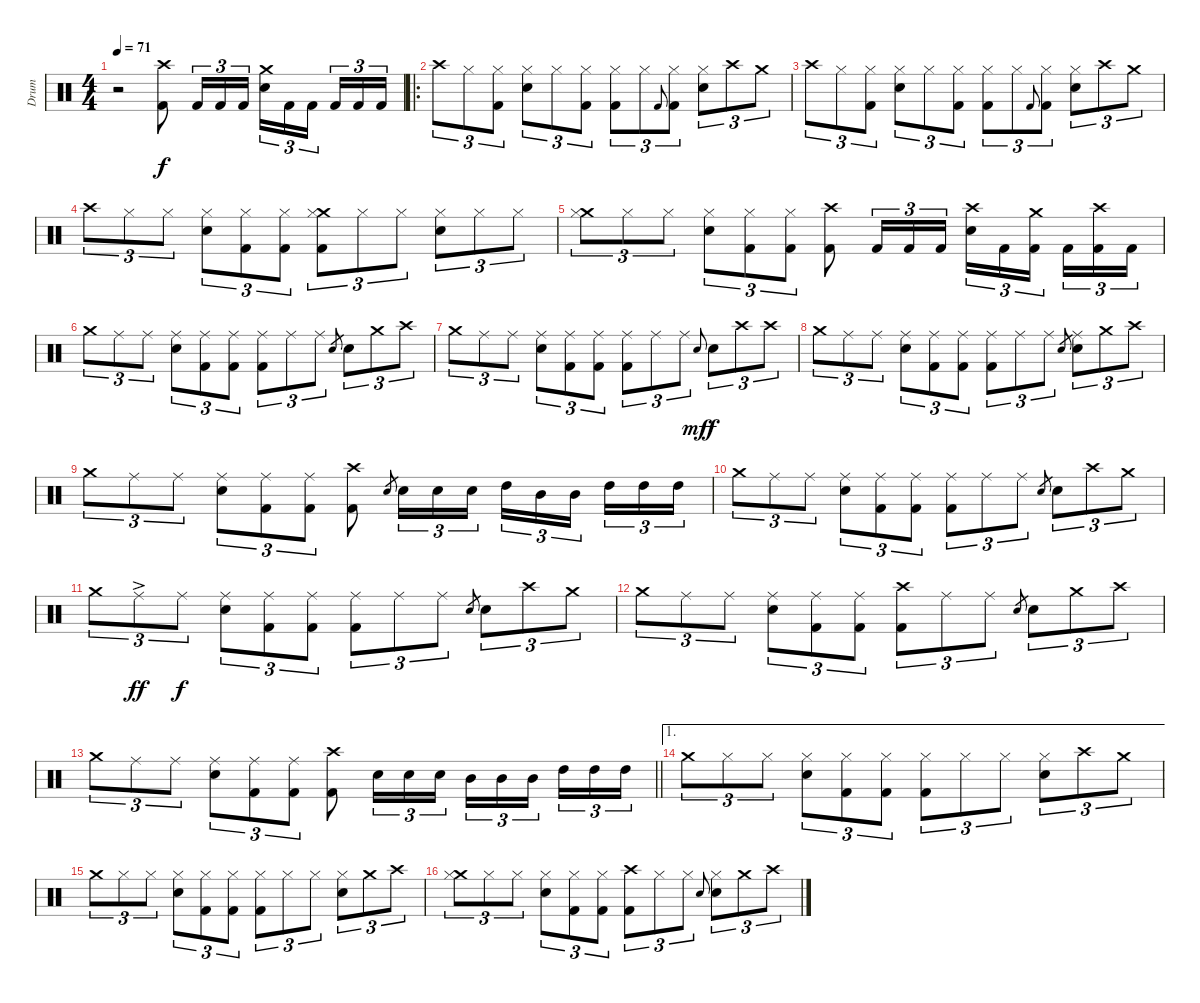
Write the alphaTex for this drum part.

\track ("Drum" "Drum") {instrument percussion}
\staff {score}
\articulation defaults
\ts (4 4)
\tempo 71
\clef neutral
\ks c
r.2{dy f} ("Crash high (hit)" "Kick (hit) 2").8 "Kick (hit) 2".16{tu (3 2)} "Kick (hit) 2".16{tu (3 2)} "Kick (hit) 2".16{tu (3 2)} ("Crash medium (hit)" "Electric Snare (hit)").16{tu (3 2)} "Kick (hit) 2".16{tu (3 2)} "Kick (hit) 2".16{tu (3 2) beam splitsecondary} "Kick (hit) 2".16{tu (3 2)} "Kick (hit) 2".16{tu (3 2)} "Kick (hit) 2".16{tu (3 2)} |
\ro "Crash high (hit)".8{tu (3 2)} "Hi-Hat (closed)".8{tu (3 2)}
("Hi-Hat (closed)" "Kick (hit) 2").8{tu (3 2)} ("Hi-Hat (closed)" "Electric Snare (hit)").8{tu (3 2)} "Hi-Hat (closed)".8{tu (3 2)} ("Hi-Hat (closed)" "Kick (hit) 2").8{tu (3 2)} ("Hi-Hat (closed)" "Kick (hit) 2").8{tu (3 2)} "Hi-Hat (closed)".8{tu (3 2)} "Kick (hit) 2".8{gr onbeat} ("Hi-Hat (closed)" "Kick (hit) 2").8{tu (3 2)} ("Hi-Hat (closed)" "Electric Snare (hit)").8{tu (3 2)} "Crash high (hit)".8{tu (3 2)} "Crash medium (hit)".8{tu (3 2)} |
"Crash high (hit)".8{tu (3 2)} "Hi-Hat (closed)".8{tu (3 2)} ("Hi-Hat (closed)" "Kick (hit) 2").8{tu (3 2)} ("Hi-Hat (closed)" "Electric Snare (hit)").8{tu (3 2)} "Hi-Hat (closed)".8{tu (3 2)} ("Hi-Hat (closed)" "Kick (hit) 2").8{tu (3 2)} ("Hi-Hat (closed)" "Kick (hit) 2").8{tu (3 2)} "Hi-Hat (closed)".8{tu (3 2)} "Kick (hit) 2".8{gr onbeat} ("Hi-Hat (closed)" "Kick (hit) 2").8{tu (3 2)} ("Hi-Hat (closed)" "Electric Snare (hit)").8{tu (3 2)} "Crash high (hit)".8{tu (3 2)} "Crash medium (hit)".8{tu (3 2)} |
"Crash high (hit)".8{tu (3 2)} "Hi-Hat (closed)".8{tu (3 2)} "Hi-Hat (closed)".8{tu (3 2)} ("Hi-Hat (closed)" "Electric Snare (hit)").8{tu (3 2)} ("Hi-Hat (closed)" "Kick (hit) 2").8{tu (3 2)} ("Hi-Hat (closed)" "Kick (hit) 2").8{tu (3 2)} ("Crash medium (hit)" "Hi-Hat (closed)" "Kick (hit) 2").8{tu (3 2)} "Hi-Hat (closed)".8{tu (3 2)} "Hi-Hat (closed)".8{tu (3 2)} ("Hi-Hat (closed)" "Electric Snare (hit)").8{tu (3 2)} "Hi-Hat (closed)".8{tu (3 2)} "Hi-Hat (closed)".8{tu (3 2)} |
("Crash medium (hit)" "Hi-Hat (closed)").8{tu (3 2)} "Hi-Hat (closed)".8{tu (3 2)} "Hi-Hat (closed)".8{tu (3 2)} ("Hi-Hat (closed)" "Electric Snare (hit)").8{tu (3 2)} ("Hi-Hat (closed)" "Kick (hit) 2").8{tu (3 2)} ("Hi-Hat (closed)" "Kick (hit) 2").8{tu (3 2)} ("Crash high (hit)" "Kick (hit) 2").8 "Kick (hit) 2".16{tu (3 2)} "Kick (hit) 2".16{tu (3 2)} "Kick (hit) 2".16{tu (3 2)} ("Crash high (hit)" "Electric Snare (hit)").16{tu (3 2)} "Kick (hit) 2".16{tu (3 2)} ("Crash medium (hit)" "Kick (hit) 2").16{tu (3 2) beam splitsecondary} "Kick (hit) 2".16{tu (3 2)} ("Crash high (hit)" "Kick (hit) 2").16{tu (3 2)} "Kick (hit) 2".16{tu (3 2)} |
"Crash medium (hit)".8{tu (3 2)} "Ride (middle)".8{tu (3 2)} "Ride (middle)".8{tu (3 2)} ("Ride (middle)" "Electric Snare (hit)").8{tu (3 2)} ("Ride (middle)" "Kick (hit) 2").8{tu (3 2)} ("Ride (middle)" "Kick (hit) 2").8{tu (3 2)} ("Ride (middle)" "Kick (hit) 2").8{tu (3 2)} "Ride (middle)".8{tu (3 2)} "Ride (middle)".8{tu (3 2)} "Electric Snare (hit)".8{gr} "Electric Snare (hit)".8{tu (3 2)} "Crash medium (hit)".8{tu (3 2)} "Crash high (hit)".8{tu (3 2)} |
"Crash medium (hit)".8{tu (3 2)} "Ride (middle)".8{tu (3 2)} "Ride (middle)".8{tu (3 2)} ("Ride (middle)" "Electric Snare (hit)").8{tu (3 2)} ("Ride (middle)" "Kick (hit) 2").8{tu (3 2)} ("Ride (middle)" "Kick (hit) 2").8{tu (3 2)} ("Ride (middle)" "Kick (hit) 2").8{tu (3 2)} "Ride (middle)".8{tu (3 2)} "Ride (middle)".8{tu (3 2)} "Electric Snare (hit)".8{gr onbeat dy mf} "Electric Snare (hit)".8{tu (3 2) dy f} "Crash high (hit)".8{tu (3 2)} "Crash high (hit)".8{tu (3 2)} |
"Crash medium (hit)".8{tu (3 2)} "Ride (middle)".8{tu (3 2)} "Ride (middle)".8{tu (3 2)} ("Ride (middle)" "Electric Snare (hit)").8{tu (3 2)} ("Ride (middle)" "Kick (hit) 2").8{tu (3 2)} ("Ride (middle)" "Kick (hit) 2").8{tu (3 2)} ("Ride (middle)" "Kick (hit) 2").8{tu (3 2)} "Ride (middle)".8{tu (3 2)} "Ride (middle)".8{tu (3 2)} "Electric Snare (hit)".8{gr} ("Ride (middle)" "Electric Snare (hit)").8{tu (3 2)} "Crash medium (hit)".8{tu (3 2)} "Crash high (hit)".8{tu (3 2)} |
"Crash medium (hit)".8{tu (3 2)} "Ride (middle)".8{tu (3 2)} "Ride (middle)".8{tu (3 2)} ("Ride (middle)" "Electric Snare (hit)").8{tu (3 2)} ("Ride (middle)" "Kick (hit) 2").8{tu (3 2)} ("Ride (middle)" "Kick (hit) 2").8{tu (3 2)} ("Crash high (hit)" "Kick (hit) 2").8 "Electric Snare (hit)".8{gr} "Electric Snare (hit)".16{tu (3 2)} "Electric Snare (hit)".16{tu (3 2)} "Electric Snare (hit)".16{tu (3 2)} "High Tom (hit)".16{tu (3 2)} "Mid Tom (hit)".16{tu (3 2)} "Mid Tom (hit)".16{tu (3 2) beam splitsecondary} "High Tom (hit)".16{tu (3 2)} "High Tom (hit)".16{tu (3 2)} "High Tom (hit)".16{tu (3 2)} |
"Crash medium (hit)".8{tu (3 2)} "Ride (middle)".8{tu (3 2)} "Ride (middle)".8{tu (3 2)} ("Ride (middle)" "Electric Snare (hit)").8{tu (3 2)} ("Ride (middle)" "Kick (hit) 2").8{tu (3 2)} ("Ride (middle)" "Kick (hit) 2").8{tu (3 2)} ("Ride (middle)" "Kick (hit) 2").8{tu (3 2)} "Ride (middle)".8{tu (3 2)} "Ride (middle)".8{tu (3 2)} "Electric Snare (hit)".8{gr} "Electric Snare (hit)".8{tu (3 2)} "Crash high (hit)".8{tu (3 2)} "Crash medium (hit)".8{tu (3 2)} |
"Crash medium (hit)".8{tu (3 2)} "Ride (middle)"{ac}.8{tu (3 2) dy ff} "Ride (middle)".8{tu (3 2) dy f} ("Ride (middle)" "Electric Snare (hit)").8{tu (3 2)} ("Ride (middle)" "Kick (hit) 2").8{tu (3 2)} ("Ride (middle)" "Kick (hit) 2").8{tu (3 2)} ("Ride (middle)" "Kick (hit) 2").8{tu (3 2)} "Ride (middle)".8{tu (3 2)} "Ride (middle)".8{tu (3 2)} "Electric Snare (hit)".8{gr} "Electric Snare (hit)".8{tu (3 2)} "Crash high (hit)".8{tu (3 2)} "Crash medium (hit)".8{tu (3 2)} |
"Crash medium (hit)".8{tu (3 2)} "Ride (middle)".8{tu (3 2)} "Ride (middle)".8{tu (3 2)} ("Ride (middle)" "Electric Snare (hit)").8{tu (3 2)} ("Ride (middle)" "Kick (hit) 2").8{tu (3 2)} ("Ride (middle)" "Kick (hit) 2").8{tu (3 2)} ("Crash high (hit)" "Kick (hit) 2").8{tu (3 2)} "Ride (middle)".8{tu (3 2)} "Ride (middle)".8{tu (3 2)} "Electric Snare (hit)".8{gr} "Electric Snare (hit)".8{tu (3 2)} "Crash medium (hit)".8{tu (3 2)} "Crash high (hit)".8{tu (3 2)} |
\barLineRight lightlight "Crash medium (hit)".8{tu (3 2)} "Ride (middle)".8{tu (3 2)} "Ride (middle)".8{tu (3 2)}
("Ride (middle)" "Electric Snare (hit)").8{tu (3 2)} ("Ride (middle)" "Kick (hit) 2").8{tu (3 2)} ("Ride (middle)" "Kick (hit) 2").8{tu (3 2)} ("Crash high (hit)" "Kick (hit) 2").8 "Electric Snare (hit)".16{tu (3 2)} "Electric Snare (hit)".16{tu (3 2)} "Electric Snare (hit)".16{tu (3 2)} "Mid Tom (hit)".16{tu (3 2)} "Mid Tom (hit)".16{tu (3 2)} "Mid Tom (hit)".16{tu (3 2) beam splitsecondary} "High Tom (hit)".16{tu (3 2)} "High Tom (hit)".16{tu (3 2)} "High Tom (hit)".16{tu (3 2)} |
\ae 1 "Crash medium (hit)".8{tu (3 2)} "Hi-Hat (closed)".8{tu (3 2)} "Hi-Hat (closed)".8{tu (3 2)}
("Hi-Hat (closed)" "Electric Snare (hit)").8{tu (3 2)} ("Hi-Hat (closed)" "Kick (hit) 2").8{tu (3 2)} ("Hi-Hat (closed)" "Kick (hit) 2").8{tu (3 2)} ("Hi-Hat (closed)" "Kick (hit) 2").8{tu (3 2)} "Hi-Hat (closed)".8{tu (3 2)} "Hi-Hat (closed)".8{tu (3 2)} ("Hi-Hat (closed)" "Electric Snare (hit)").8{tu (3 2)} "Crash high (hit)".8{tu (3 2)} "Crash medium (hit)".8{tu (3 2)} |
"Crash medium (hit)".8{tu (3 2)} "Hi-Hat (closed)".8{tu (3 2)} "Hi-Hat (closed)".8{tu (3 2)} ("Hi-Hat (closed)" "Electric Snare (hit)").8{tu (3 2)} ("Hi-Hat (closed)" "Kick (hit) 2").8{tu (3 2)} ("Hi-Hat (closed)" "Kick (hit) 2").8{tu (3 2)} ("Hi-Hat (closed)" "Kick (hit) 2").8{tu (3 2)} "Hi-Hat (closed)".8{tu (3 2)} "Hi-Hat (closed)".8{tu (3 2)} ("Hi-Hat (closed)" "Electric Snare (hit)").8{tu (3 2)} "Crash medium (hit)".8{tu (3 2)} "Crash high (hit)".8{tu (3 2)} |
("Crash medium (hit)" "Hi-Hat (closed)").8{tu (3 2)} "Hi-Hat (closed)".8{tu (3 2)} "Hi-Hat (closed)".8{tu (3 2)} ("Hi-Hat (closed)" "Electric Snare (hit)").8{tu (3 2)} ("Hi-Hat (closed)" "Kick (hit) 2").8{tu (3 2)} ("Hi-Hat (closed)" "Kick (hit) 2").8{tu (3 2)} ("Crash high (hit)" "Kick (hit) 2").8{tu (3 2)} "Hi-Hat (closed)".8{tu (3 2)} "Hi-Hat (closed)".8{tu (3 2)} "Electric Snare (hit)".8{gr onbeat} ("Hi-Hat (closed)" "Electric Snare (hit)").8{tu (3 2)} "Crash medium (hit)".8{tu (3 2)} "Crash high (hit)".8{tu (3 2)}
